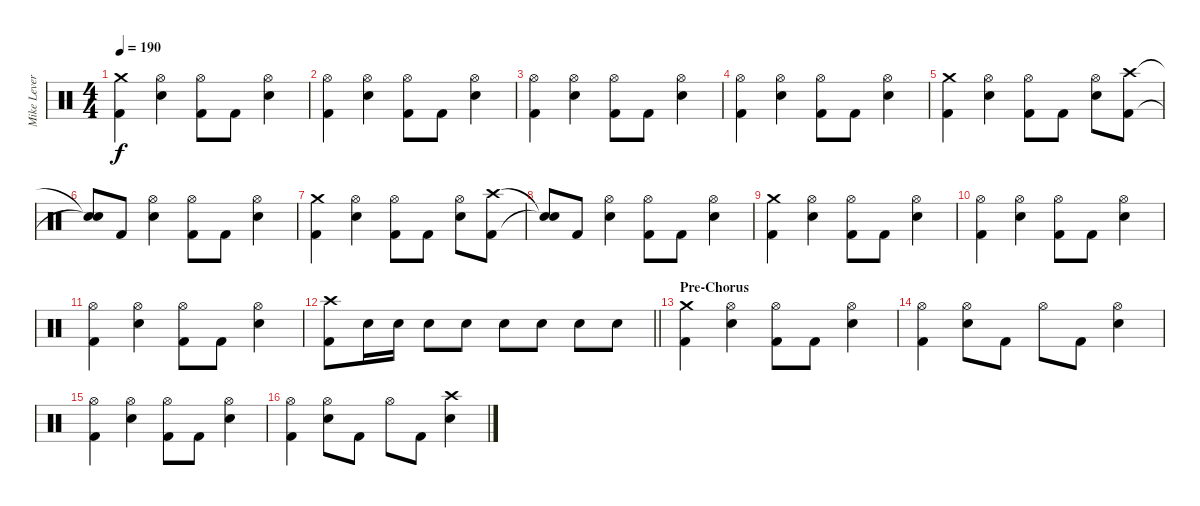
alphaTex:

\track ("Mike Leverence - Drums" "Mike Lever") {instrument percussion}
\staff {score}
\articulation defaults
\ts (4 4)
\tempo 190
\clef neutral
\ks c
("Crash medium (hit)" "Kick (hit) 2").4{dy f} ("Hi-Hat (open)" "Electric Snare (hit)").4 ("Hi-Hat (open)" "Kick (hit) 2").8 "Kick (hit) 2".8 ("Hi-Hat (open)" "Electric Snare (hit)").4 |
("Hi-Hat (open)" "Kick (hit) 2").4 ("Hi-Hat (open)" "Electric Snare (hit)").4 ("Hi-Hat (open)" "Kick (hit) 2").8 "Kick (hit) 2".8 ("Hi-Hat (open)" "Electric Snare (hit)").4 |
("Hi-Hat (open)" "Kick (hit) 2").4 ("Hi-Hat (open)" "Electric Snare (hit)").4 ("Hi-Hat (open)" "Kick (hit) 2").8 "Kick (hit) 2".8 ("Hi-Hat (open)" "Electric Snare (hit)").4 |
("Hi-Hat (open)" "Kick (hit) 2").4 ("Hi-Hat (open)" "Electric Snare (hit)").4 ("Hi-Hat (open)" "Kick (hit) 2").8 "Kick (hit) 2".8 ("Hi-Hat (open)" "Electric Snare (hit)").4 |
("Crash medium (hit)" "Kick (hit) 2").4 ("Hi-Hat (open)" "Electric Snare (hit)").4 ("Hi-Hat (open)" "Kick (hit) 2").8 "Kick (hit) 2".8 ("Hi-Hat (open)" "Electric Snare (hit)").8 ("Crash high (hit)" "Kick (hit) 2").8 |
("Snare (hit)"{t} "Snare (hit)"{t}).8 "Kick (hit) 2".8 ("Hi-Hat (open)" "Electric Snare (hit)").4 ("Hi-Hat (open)" "Kick (hit) 2").8 "Kick (hit) 2".8 ("Hi-Hat (open)" "Electric Snare (hit)").4 |
("Crash medium (hit)" "Kick (hit) 2").4 ("Hi-Hat (open)" "Electric Snare (hit)").4 ("Hi-Hat (open)" "Kick (hit) 2").8 "Kick (hit) 2".8 ("Hi-Hat (open)" "Electric Snare (hit)").8 ("Crash high (hit)" "Kick (hit) 2").8 |
("Snare (hit)"{t} "Snare (hit)"{t}).8 "Kick (hit) 2".8 ("Hi-Hat (open)" "Electric Snare (hit)").4 ("Hi-Hat (open)" "Kick (hit) 2").8 "Kick (hit) 2".8 ("Hi-Hat (open)" "Electric Snare (hit)").4 |
("Crash medium (hit)" "Kick (hit) 2").4 ("Hi-Hat (open)" "Electric Snare (hit)").4 ("Hi-Hat (open)" "Kick (hit) 2").8 "Kick (hit) 2".8 ("Hi-Hat (open)" "Electric Snare (hit)").4 |
("Hi-Hat (open)" "Kick (hit) 2").4 ("Hi-Hat (open)" "Electric Snare (hit)").4 ("Hi-Hat (open)" "Kick (hit) 2").8 "Kick (hit) 2".8 ("Hi-Hat (open)" "Electric Snare (hit)").4 |
("Hi-Hat (open)" "Kick (hit) 2").4 ("Hi-Hat (open)" "Electric Snare (hit)").4 ("Hi-Hat (open)" "Kick (hit) 2").8 "Kick (hit) 2".8 ("Hi-Hat (open)" "Electric Snare (hit)").4 |
\barLineRight lightlight
("Crash high (hit)" "Kick (hit) 2").8 "Electric Snare (hit)".16 "Electric Snare (hit)".16 "Electric Snare (hit)".8 "Electric Snare (hit)".8 "Electric Snare (hit)".8 "Electric Snare (hit)".8 "Electric Snare (hit)".8 "Electric Snare (hit)".8 |
\section ("" "Pre-Chorus")
("Crash medium (hit)" "Kick (hit) 2").4 ("Hi-Hat (open)" "Electric Snare (hit)").4 ("Hi-Hat (open)" "Kick (hit) 2").8 "Kick (hit) 2".8 ("Hi-Hat (open)" "Electric Snare (hit)").4 |
("Hi-Hat (open)" "Kick (hit) 2").4 ("Hi-Hat (open)" "Electric Snare (hit)").8 "Kick (hit) 2".8 "Hi-Hat (open)".8 "Kick (hit) 2".8 ("Hi-Hat (open)" "Electric Snare (hit)").4 |
("Hi-Hat (open)" "Kick (hit) 2").4 ("Hi-Hat (open)" "Electric Snare (hit)").4 ("Hi-Hat (open)" "Kick (hit) 2").8 "Kick (hit) 2".8 ("Hi-Hat (open)" "Electric Snare (hit)").4 |
("Hi-Hat (open)" "Kick (hit) 2").4 ("Hi-Hat (open)" "Electric Snare (hit)").8 "Kick (hit) 2".8 "Hi-Hat (open)".8 "Kick (hit) 2".8 ("Crash high (hit)" "Electric Snare (hit)").4
